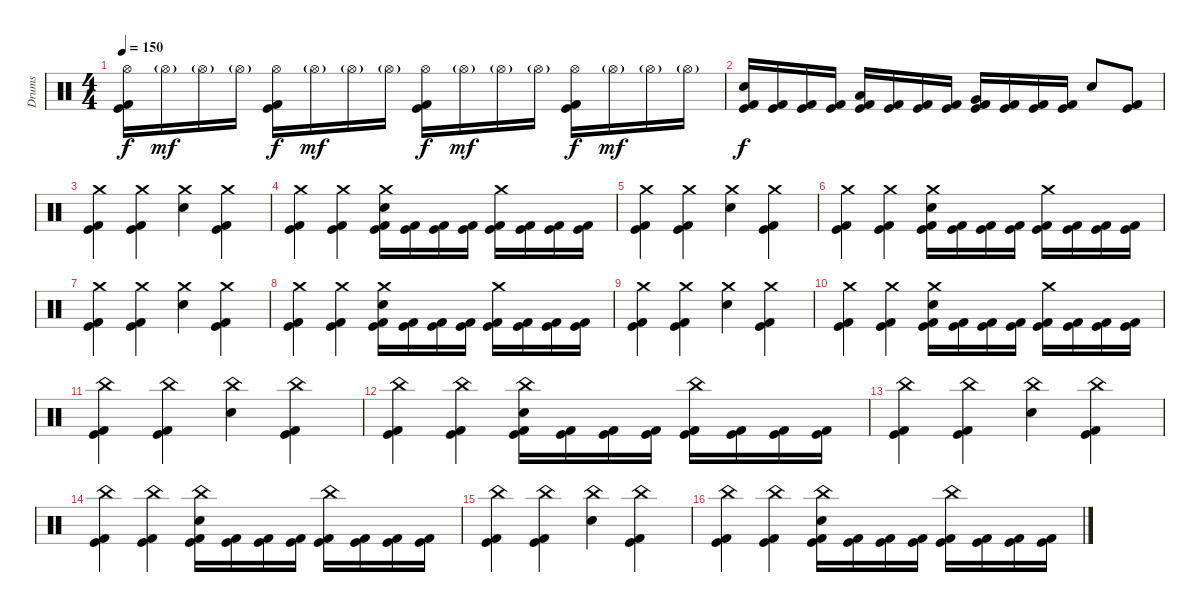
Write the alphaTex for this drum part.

\track ("Drums" "Drums") {instrument percussion}
\staff {score}
\articulation defaults
\ts (4 4)
\tempo 150
\clef neutral
\ks c
("Hi-Hat (open)" "Kick (hit)" "Kick (hit) 2").16{dy f} "Hi-Hat (open)"{g}.16{dy mf} "Hi-Hat (open)"{g}.16 "Hi-Hat (open)"{g}.16 ("Hi-Hat (open)" "Kick (hit)" "Kick (hit) 2").16{dy f} "Hi-Hat (open)"{g}.16{dy mf} "Hi-Hat (open)"{g}.16 "Hi-Hat (open)"{g}.16 ("Hi-Hat (open)" "Kick (hit)" "Kick (hit) 2").16{dy f} "Hi-Hat (open)"{g}.16{dy mf} "Hi-Hat (open)"{g}.16 "Hi-Hat (open)"{g}.16 ("Hi-Hat (open)" "Kick (hit)" "Kick (hit) 2").16{dy f} "Hi-Hat (open)"{g}.16{dy mf} "Hi-Hat (open)"{g}.16 "Hi-Hat (open)"{g}.16 |
("Electric Snare (hit)" "Kick (hit)" "Kick (hit) 2").16{dy f} ("Kick (hit)" "Kick (hit) 2").16 ("Kick (hit)" "Kick (hit) 2").16 ("Kick (hit)" "Kick (hit) 2").16 ("Low Tom (hit)" "Kick (hit)" "Kick (hit) 2").16 ("Kick (hit)" "Kick (hit) 2").16 ("Kick (hit)" "Kick (hit) 2").16 ("Kick (hit)" "Kick (hit) 2").16 ("Very Low Tom (hit)" "Kick (hit)" "Kick (hit) 2").16 ("Kick (hit)" "Kick (hit) 2").16 ("Kick (hit)" "Kick (hit) 2").16 ("Kick (hit)" "Kick (hit) 2").16 "Electric Snare (hit)".8 ("Kick (hit)" "Kick (hit) 2").8 |
("Crash medium (hit)" "Kick (hit)" "Kick (hit) 2").4 ("Crash medium (hit)" "Kick (hit)" "Kick (hit) 2").4 ("Crash medium (hit)" "Electric Snare (hit)").4 ("Crash medium (hit)" "Kick (hit)" "Kick (hit) 2").4 |
("Crash medium (hit)" "Kick (hit)" "Kick (hit) 2").4 ("Crash medium (hit)" "Kick (hit)" "Kick (hit) 2").4 ("Crash medium (hit)" "Electric Snare (hit)" "Kick (hit)" "Kick (hit) 2").16 ("Kick (hit)" "Kick (hit) 2").16 ("Kick (hit)" "Kick (hit) 2").16 ("Kick (hit)" "Kick (hit) 2").16 ("Crash medium (hit)" "Kick (hit)" "Kick (hit) 2").16 ("Kick (hit)" "Kick (hit) 2").16 ("Kick (hit)" "Kick (hit) 2").16 ("Kick (hit)" "Kick (hit) 2").16 |
("Crash medium (hit)" "Kick (hit)" "Kick (hit) 2").4 ("Crash medium (hit)" "Kick (hit)" "Kick (hit) 2").4 ("Crash medium (hit)" "Electric Snare (hit)").4 ("Crash medium (hit)" "Kick (hit)" "Kick (hit) 2").4 |
("Crash medium (hit)" "Kick (hit)" "Kick (hit) 2").4 ("Crash medium (hit)" "Kick (hit)" "Kick (hit) 2").4 ("Crash medium (hit)" "Electric Snare (hit)" "Kick (hit)" "Kick (hit) 2").16 ("Kick (hit)" "Kick (hit) 2").16 ("Kick (hit)" "Kick (hit) 2").16 ("Kick (hit)" "Kick (hit) 2").16 ("Crash medium (hit)" "Kick (hit)" "Kick (hit) 2").16 ("Kick (hit)" "Kick (hit) 2").16 ("Kick (hit)" "Kick (hit) 2").16 ("Kick (hit)" "Kick (hit) 2").16 |
("Crash medium (hit)" "Kick (hit)" "Kick (hit) 2").4 ("Crash medium (hit)" "Kick (hit)" "Kick (hit) 2").4 ("Crash medium (hit)" "Electric Snare (hit)").4 ("Crash medium (hit)" "Kick (hit)" "Kick (hit) 2").4 |
("Crash medium (hit)" "Kick (hit)" "Kick (hit) 2").4 ("Crash medium (hit)" "Kick (hit)" "Kick (hit) 2").4 ("Crash medium (hit)" "Electric Snare (hit)" "Kick (hit)" "Kick (hit) 2").16 ("Kick (hit)" "Kick (hit) 2").16 ("Kick (hit)" "Kick (hit) 2").16 ("Kick (hit)" "Kick (hit) 2").16 ("Crash medium (hit)" "Kick (hit)" "Kick (hit) 2").16 ("Kick (hit)" "Kick (hit) 2").16 ("Kick (hit)" "Kick (hit) 2").16 ("Kick (hit)" "Kick (hit) 2").16 |
("Crash medium (hit)" "Kick (hit)" "Kick (hit) 2").4 ("Crash medium (hit)" "Kick (hit)" "Kick (hit) 2").4 ("Crash medium (hit)" "Electric Snare (hit)").4 ("Crash medium (hit)" "Kick (hit)" "Kick (hit) 2").4 |
("Crash medium (hit)" "Kick (hit)" "Kick (hit) 2").4 ("Crash medium (hit)" "Kick (hit)" "Kick (hit) 2").4 ("Crash medium (hit)" "Electric Snare (hit)" "Kick (hit)" "Kick (hit) 2").16 ("Kick (hit)" "Kick (hit) 2").16 ("Kick (hit)" "Kick (hit) 2").16 ("Kick (hit)" "Kick (hit) 2").16 ("Crash medium (hit)" "Kick (hit)" "Kick (hit) 2").16 ("Kick (hit)" "Kick (hit) 2").16 ("Kick (hit)" "Kick (hit) 2").16 ("Kick (hit)" "Kick (hit) 2").16 |
("China (hit)" "Kick (hit)" "Kick (hit) 2").4 ("China (hit)" "Kick (hit)" "Kick (hit) 2").4 ("China (hit)" "Electric Snare (hit)").4 ("China (hit)" "Kick (hit)" "Kick (hit) 2").4 |
("China (hit)" "Kick (hit)" "Kick (hit) 2").4 ("China (hit)" "Kick (hit)" "Kick (hit) 2").4 ("China (hit)" "Electric Snare (hit)" "Kick (hit)" "Kick (hit) 2").16 ("Kick (hit)" "Kick (hit) 2").16 ("Kick (hit)" "Kick (hit) 2").16 ("Kick (hit)" "Kick (hit) 2").16 ("China (hit)" "Kick (hit)" "Kick (hit) 2").16 ("Kick (hit)" "Kick (hit) 2").16 ("Kick (hit)" "Kick (hit) 2").16 ("Kick (hit)" "Kick (hit) 2").16 |
("China (hit)" "Kick (hit)" "Kick (hit) 2").4 ("China (hit)" "Kick (hit)" "Kick (hit) 2").4 ("China (hit)" "Electric Snare (hit)").4 ("China (hit)" "Kick (hit)" "Kick (hit) 2").4 |
("China (hit)" "Kick (hit)" "Kick (hit) 2").4 ("China (hit)" "Kick (hit)" "Kick (hit) 2").4 ("China (hit)" "Electric Snare (hit)" "Kick (hit)" "Kick (hit) 2").16 ("Kick (hit)" "Kick (hit) 2").16 ("Kick (hit)" "Kick (hit) 2").16 ("Kick (hit)" "Kick (hit) 2").16 ("China (hit)" "Kick (hit)" "Kick (hit) 2").16 ("Kick (hit)" "Kick (hit) 2").16 ("Kick (hit)" "Kick (hit) 2").16 ("Kick (hit)" "Kick (hit) 2").16 |
("China (hit)" "Kick (hit)" "Kick (hit) 2").4 ("China (hit)" "Kick (hit)" "Kick (hit) 2").4 ("China (hit)" "Electric Snare (hit)").4 ("China (hit)" "Kick (hit)" "Kick (hit) 2").4 |
("China (hit)" "Kick (hit)" "Kick (hit) 2").4 ("China (hit)" "Kick (hit)" "Kick (hit) 2").4 ("China (hit)" "Electric Snare (hit)" "Kick (hit)" "Kick (hit) 2").16 ("Kick (hit)" "Kick (hit) 2").16 ("Kick (hit)" "Kick (hit) 2").16 ("Kick (hit)" "Kick (hit) 2").16 ("China (hit)" "Kick (hit)" "Kick (hit) 2").16 ("Kick (hit)" "Kick (hit) 2").16 ("Kick (hit)" "Kick (hit) 2").16 ("Kick (hit)" "Kick (hit) 2").16
